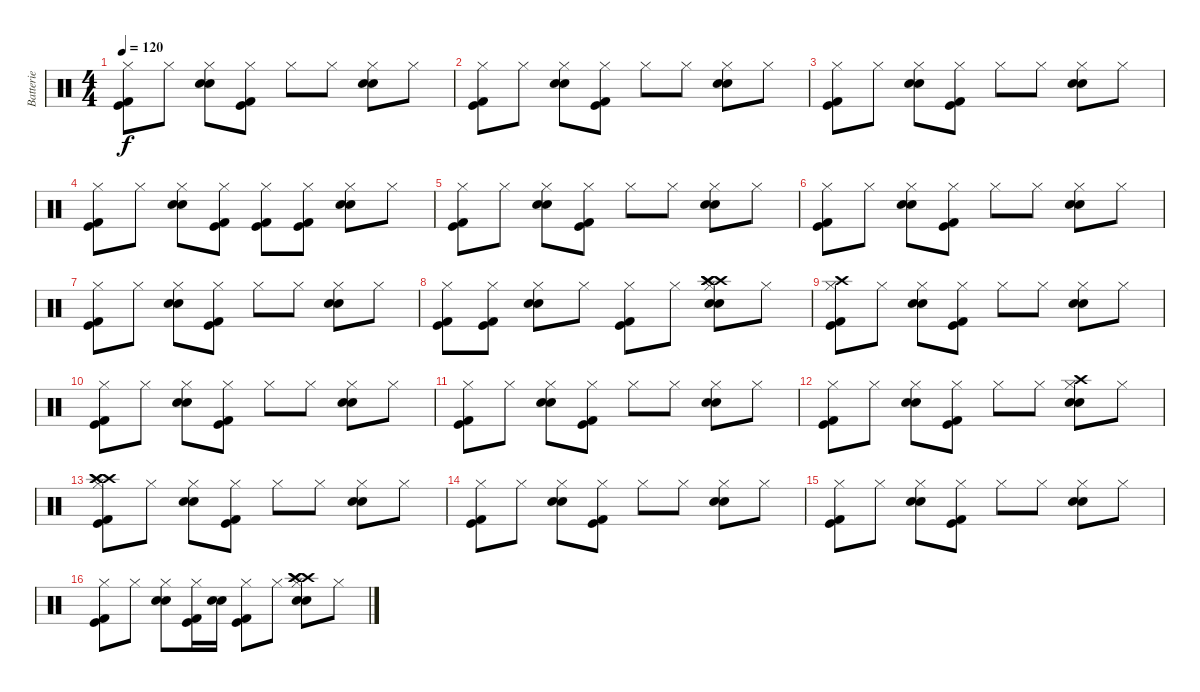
\track ("Batterie" "Batterie") {instrument percussion}
\staff {score}
\articulation defaults
\ts (4 4)
\tempo 120
\clef neutral
\ks c
("Hi-Hat (closed)" "Kick (hit)" "Kick (hit) 2").8{dy f} "Hi-Hat (closed)".8 ("Hi-Hat (closed)" "Electric Snare (hit)" "Electric Snare (hit)").8 ("Hi-Hat (closed)" "Kick (hit)" "Kick (hit) 2").8 "Hi-Hat (closed)".8 "Hi-Hat (closed)".8 ("Hi-Hat (closed)" "Electric Snare (hit)" "Electric Snare (hit)").8 "Hi-Hat (closed)".8 |
("Hi-Hat (closed)" "Kick (hit)" "Kick (hit) 2").8 "Hi-Hat (closed)".8 ("Hi-Hat (closed)" "Electric Snare (hit)" "Electric Snare (hit)").8 ("Hi-Hat (closed)" "Kick (hit)" "Kick (hit) 2").8 "Hi-Hat (closed)".8 "Hi-Hat (closed)".8 ("Hi-Hat (closed)" "Electric Snare (hit)" "Electric Snare (hit)").8 "Hi-Hat (closed)".8 |
("Hi-Hat (closed)" "Kick (hit)" "Kick (hit) 2").8 "Hi-Hat (closed)".8 ("Hi-Hat (closed)" "Electric Snare (hit)" "Electric Snare (hit)").8 ("Hi-Hat (closed)" "Kick (hit)" "Kick (hit) 2").8 "Hi-Hat (closed)".8 "Hi-Hat (closed)".8 ("Hi-Hat (closed)" "Electric Snare (hit)" "Electric Snare (hit)").8 "Hi-Hat (closed)".8 |
("Hi-Hat (closed)" "Kick (hit)" "Kick (hit) 2").8 "Hi-Hat (closed)".8 ("Hi-Hat (closed)" "Electric Snare (hit)" "Electric Snare (hit)").8 ("Hi-Hat (closed)" "Kick (hit)" "Kick (hit) 2").8 ("Hi-Hat (closed)" "Kick (hit)" "Kick (hit) 2").8 ("Hi-Hat (closed)" "Kick (hit)" "Kick (hit) 2").8 ("Hi-Hat (closed)" "Electric Snare (hit)" "Electric Snare (hit)").8 "Hi-Hat (closed)".8 |
("Hi-Hat (closed)" "Kick (hit)" "Kick (hit) 2").8 "Hi-Hat (closed)".8 ("Hi-Hat (closed)" "Electric Snare (hit)" "Electric Snare (hit)").8 ("Hi-Hat (closed)" "Kick (hit)" "Kick (hit) 2").8 "Hi-Hat (closed)".8 "Hi-Hat (closed)".8 ("Hi-Hat (closed)" "Electric Snare (hit)" "Electric Snare (hit)").8 "Hi-Hat (closed)".8 |
("Hi-Hat (closed)" "Kick (hit)" "Kick (hit) 2").8 "Hi-Hat (closed)".8 ("Hi-Hat (closed)" "Electric Snare (hit)" "Electric Snare (hit)").8 ("Hi-Hat (closed)" "Kick (hit)" "Kick (hit) 2").8 "Hi-Hat (closed)".8 "Hi-Hat (closed)".8 ("Hi-Hat (closed)" "Electric Snare (hit)" "Electric Snare (hit)").8 "Hi-Hat (closed)".8 |
("Hi-Hat (closed)" "Kick (hit)" "Kick (hit) 2").8 "Hi-Hat (closed)".8 ("Hi-Hat (closed)" "Electric Snare (hit)" "Electric Snare (hit)").8 ("Hi-Hat (closed)" "Kick (hit)" "Kick (hit) 2").8 "Hi-Hat (closed)".8 "Hi-Hat (closed)".8 ("Hi-Hat (closed)" "Electric Snare (hit)" "Electric Snare (hit)").8 "Hi-Hat (closed)".8 |
("Hi-Hat (closed)" "Kick (hit)" "Kick (hit) 2").8 ("Hi-Hat (closed)" "Kick (hit)" "Kick (hit) 2").8 ("Hi-Hat (closed)" "Electric Snare (hit)" "Electric Snare (hit)").8 "Hi-Hat (closed)".8 ("Hi-Hat (closed)" "Kick (hit)" "Kick (hit) 2").8 "Hi-Hat (closed)".8 ("Crash high (hit)" "Hi-Hat (closed)" "Electric Snare (hit)" "Electric Snare (hit)" "Crash high (hit)" "Crash high (hit)").8 "Hi-Hat (closed)".8 |
("Crash high (hit)" "Hi-Hat (closed)" "Kick (hit)" "Kick (hit) 2").8 "Hi-Hat (closed)".8 ("Hi-Hat (closed)" "Electric Snare (hit)" "Electric Snare (hit)").8 ("Hi-Hat (closed)" "Kick (hit)" "Kick (hit) 2").8 "Hi-Hat (closed)".8 "Hi-Hat (closed)".8 ("Hi-Hat (closed)" "Electric Snare (hit)" "Electric Snare (hit)").8 "Hi-Hat (closed)".8 |
("Hi-Hat (closed)" "Kick (hit)" "Kick (hit) 2").8 "Hi-Hat (closed)".8 ("Hi-Hat (closed)" "Electric Snare (hit)" "Electric Snare (hit)").8 ("Hi-Hat (closed)" "Kick (hit)" "Kick (hit) 2").8 "Hi-Hat (closed)".8 "Hi-Hat (closed)".8 ("Hi-Hat (closed)" "Electric Snare (hit)" "Electric Snare (hit)").8 "Hi-Hat (closed)".8 |
("Hi-Hat (closed)" "Kick (hit)" "Kick (hit) 2").8 "Hi-Hat (closed)".8 ("Hi-Hat (closed)" "Electric Snare (hit)" "Electric Snare (hit)").8 ("Hi-Hat (closed)" "Kick (hit)" "Kick (hit) 2").8 "Hi-Hat (closed)".8 "Hi-Hat (closed)".8 ("Hi-Hat (closed)" "Electric Snare (hit)" "Electric Snare (hit)").8 "Hi-Hat (closed)".8 |
("Hi-Hat (closed)" "Kick (hit)" "Kick (hit) 2").8 "Hi-Hat (closed)".8 ("Hi-Hat (closed)" "Electric Snare (hit)" "Electric Snare (hit)").8 ("Hi-Hat (closed)" "Kick (hit)" "Kick (hit) 2").8 "Hi-Hat (closed)".8 "Hi-Hat (closed)".8 ("Hi-Hat (closed)" "Electric Snare (hit)" "Electric Snare (hit)" "Crash high (hit)").8 "Hi-Hat (closed)".8 |
("Crash high (hit)" "Hi-Hat (closed)" "Crash high (hit)" "Kick (hit)" "Kick (hit) 2" "Crash high (hit)").8 "Hi-Hat (closed)".8 ("Hi-Hat (closed)" "Electric Snare (hit)" "Electric Snare (hit)").8 ("Hi-Hat (closed)" "Kick (hit)" "Kick (hit) 2").8 "Hi-Hat (closed)".8 "Hi-Hat (closed)".8 ("Hi-Hat (closed)" "Electric Snare (hit)" "Electric Snare (hit)").8 "Hi-Hat (closed)".8 |
("Hi-Hat (closed)" "Kick (hit)" "Kick (hit) 2").8 "Hi-Hat (closed)".8 ("Hi-Hat (closed)" "Electric Snare (hit)" "Electric Snare (hit)").8 ("Hi-Hat (closed)" "Kick (hit)" "Kick (hit) 2").8 "Hi-Hat (closed)".8 "Hi-Hat (closed)".8 ("Hi-Hat (closed)" "Electric Snare (hit)" "Electric Snare (hit)").8 "Hi-Hat (closed)".8 |
("Hi-Hat (closed)" "Kick (hit)" "Kick (hit) 2").8 "Hi-Hat (closed)".8 ("Hi-Hat (closed)" "Electric Snare (hit)" "Electric Snare (hit)").8 ("Hi-Hat (closed)" "Kick (hit)" "Kick (hit) 2").8 "Hi-Hat (closed)".8 "Hi-Hat (closed)".8 ("Hi-Hat (closed)" "Electric Snare (hit)" "Electric Snare (hit)").8 "Hi-Hat (closed)".8 |
("Hi-Hat (closed)" "Kick (hit)" "Kick (hit) 2").8 "Hi-Hat (closed)".8 ("Hi-Hat (closed)" "Electric Snare (hit)" "Electric Snare (hit)").8 ("Hi-Hat (closed)" "Kick (hit)" "Kick (hit) 2").16 ("Electric Snare (hit)" "Electric Snare (hit)").16 ("Hi-Hat (closed)" "Kick (hit)" "Kick (hit) 2").8 "Hi-Hat (closed)".8 ("Crash high (hit)" "Hi-Hat (closed)" "Electric Snare (hit)" "Electric Snare (hit)" "Crash high (hit)" "Crash high (hit)").8 "Hi-Hat (closed)".8
